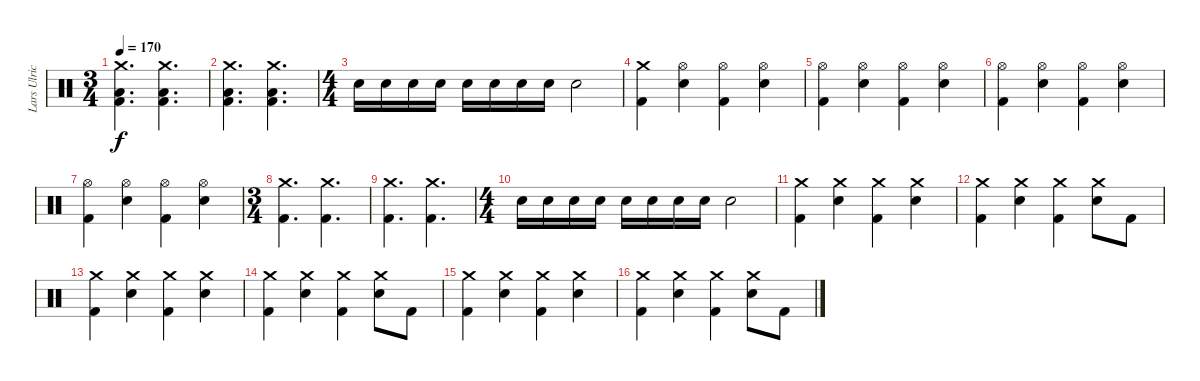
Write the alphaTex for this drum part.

\track ("Lars Ulrich" "Lars Ulric") {instrument percussion}
\staff {score}
\articulation defaults
\ts (3 4)
\tempo 170
\clef neutral
\ks c
("Crash medium (hit)" "Low Floor Tom (hit)" "Kick (hit) 2").4{d dy f} ("Crash medium (hit)" "Low Floor Tom (hit)" "Kick (hit) 2").4{d} |
("Crash medium (hit)" "Low Floor Tom (hit)" "Kick (hit) 2").4{d} ("Crash medium (hit)" "Low Floor Tom (hit)" "Kick (hit) 2").4{d} |
\ts (4 4)
"Electric Snare (hit)".16 "Electric Snare (hit)".16 "Electric Snare (hit)".16 "Electric Snare (hit)".16 "Electric Snare (hit)".16 "Electric Snare (hit)".16 "Electric Snare (hit)".16 "Electric Snare (hit)".16 "Electric Snare (hit)".2 |
("Crash medium (hit)" "Kick (hit) 2").4 ("Hi-Hat (open)" "Electric Snare (hit)").4 ("Hi-Hat (open)" "Kick (hit) 2").4 ("Hi-Hat (open)" "Electric Snare (hit)").4 |
("Hi-Hat (open)" "Kick (hit) 2").4 ("Hi-Hat (open)" "Electric Snare (hit)").4 ("Hi-Hat (open)" "Kick (hit) 2").4 ("Hi-Hat (open)" "Electric Snare (hit)").4 |
("Hi-Hat (open)" "Kick (hit) 2").4 ("Hi-Hat (open)" "Electric Snare (hit)").4 ("Hi-Hat (open)" "Kick (hit) 2").4 ("Hi-Hat (open)" "Electric Snare (hit)").4 |
("Hi-Hat (open)" "Kick (hit) 2").4 ("Hi-Hat (open)" "Electric Snare (hit)").4 ("Hi-Hat (open)" "Kick (hit) 2").4 ("Hi-Hat (open)" "Electric Snare (hit)").4 |
\ts (3 4)
("Crash medium (hit)" "Kick (hit) 2").4{d} ("Crash medium (hit)" "Kick (hit) 2").4{d} |
("Crash medium (hit)" "Kick (hit) 2").4{d} ("Crash medium (hit)" "Kick (hit) 2").4{d} |
\ts (4 4)
"Electric Snare (hit)".16 "Electric Snare (hit)".16 "Electric Snare (hit)".16 "Electric Snare (hit)".16 "Electric Snare (hit)".16 "Electric Snare (hit)".16 "Electric Snare (hit)".16 "Electric Snare (hit)".16 "Electric Snare (hit)".2 |
("Crash medium (hit)" "Kick (hit) 2").4 ("Crash medium (hit)" "Electric Snare (hit)").4 ("Crash medium (hit)" "Kick (hit) 2").4 ("Crash medium (hit)" "Electric Snare (hit)").4 |
("Crash medium (hit)" "Kick (hit) 2").4 ("Crash medium (hit)" "Electric Snare (hit)").4 ("Crash medium (hit)" "Kick (hit) 2").4 ("Crash medium (hit)" "Electric Snare (hit)").8 "Kick (hit) 2".8 |
("Crash medium (hit)" "Kick (hit) 2").4 ("Crash medium (hit)" "Electric Snare (hit)").4 ("Crash medium (hit)" "Kick (hit) 2").4 ("Crash medium (hit)" "Electric Snare (hit)").4 |
("Crash medium (hit)" "Kick (hit) 2").4 ("Crash medium (hit)" "Electric Snare (hit)").4 ("Crash medium (hit)" "Kick (hit) 2").4 ("Crash medium (hit)" "Electric Snare (hit)").8 "Kick (hit) 2".8 |
("Crash medium (hit)" "Kick (hit) 2").4 ("Crash medium (hit)" "Electric Snare (hit)").4 ("Crash medium (hit)" "Kick (hit) 2").4 ("Crash medium (hit)" "Electric Snare (hit)").4 |
("Crash medium (hit)" "Kick (hit) 2").4 ("Crash medium (hit)" "Electric Snare (hit)").4 ("Crash medium (hit)" "Kick (hit) 2").4 ("Crash medium (hit)" "Electric Snare (hit)").8 "Kick (hit) 2".8
